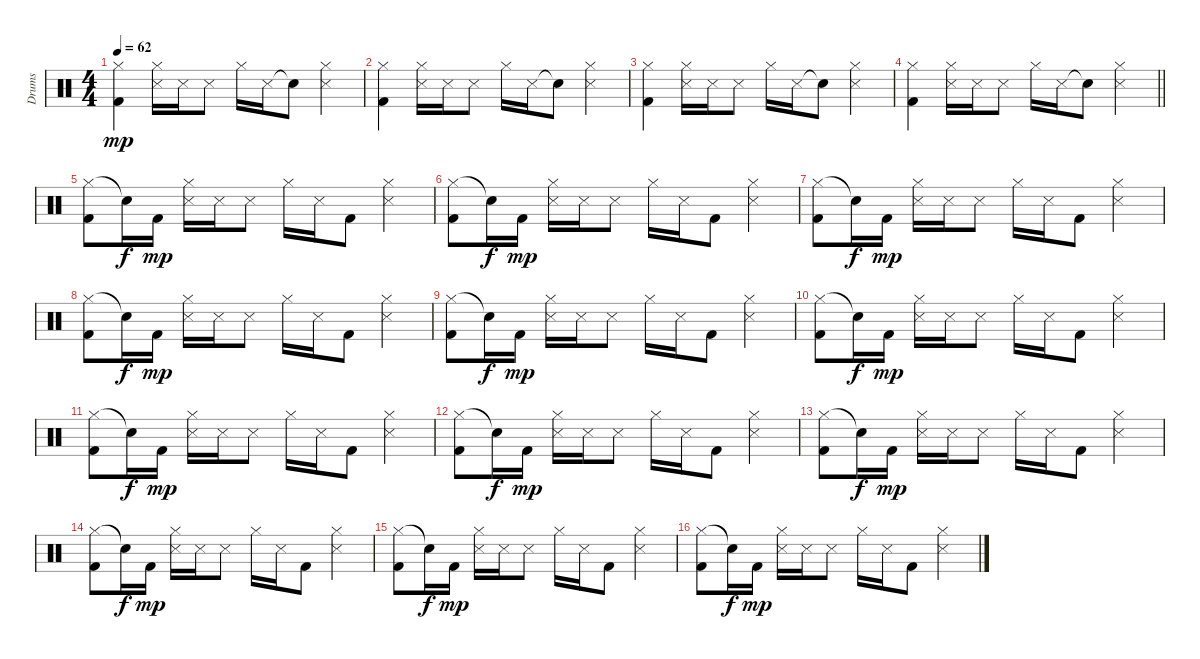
\track ("Drums" "Drums") {instrument percussion}
\staff {score}
\articulation defaults
\ts (4 4)
\tempo 62
\clef neutral
\ks c
("Hi-Hat (closed)" "Kick (hit) 2").4{dy mp} ("Hi-Hat (closed)" "Snare (side stick) 3").16 "Snare (side stick) 3".16 "Snare (side stick) 3".8 "Hi-Hat (closed)".16 "Snare (side stick) 3".16 "Snare (hit)"{t}.8 ("Hi-Hat (closed)" "Snare (side stick) 3").4 |
("Hi-Hat (closed)" "Kick (hit) 2").4 ("Hi-Hat (closed)" "Snare (side stick) 3").16 "Snare (side stick) 3".16 "Snare (side stick) 3".8 "Hi-Hat (closed)".16 "Snare (side stick) 3".16 "Snare (hit)"{t}.8 ("Hi-Hat (closed)" "Snare (side stick) 3").4 |
("Hi-Hat (closed)" "Kick (hit) 2").4 ("Hi-Hat (closed)" "Snare (side stick) 3").16 "Snare (side stick) 3".16 "Snare (side stick) 3".8 "Hi-Hat (closed)".16 "Snare (side stick) 3".16 "Snare (hit)"{t}.8 ("Hi-Hat (closed)" "Snare (side stick) 3").4 |
\barLineRight lightlight
("Hi-Hat (closed)" "Kick (hit) 2").4 ("Hi-Hat (closed)" "Snare (side stick) 3").16 "Snare (side stick) 3".16 "Snare (side stick) 3".8 "Hi-Hat (closed)".16 "Snare (side stick) 3".16 "Snare (hit)"{t}.8 ("Hi-Hat (closed)" "Snare (side stick) 3").4 |
("Hi-Hat (closed)" "Kick (hit) 2").8 "Snare (hit)"{t}.16{dy f} "Kick (hit) 2".16{dy mp} ("Hi-Hat (closed)" "Snare (side stick) 3").16 "Snare (side stick) 3".16 "Snare (side stick) 3".8 "Hi-Hat (closed)".16 "Snare (side stick) 3".16 "Kick (hit) 2".8 ("Hi-Hat (closed)" "Snare (side stick) 3").4 |
("Hi-Hat (closed)" "Kick (hit) 2").8 "Snare (hit)"{t}.16{dy f} "Kick (hit) 2".16{dy mp} ("Hi-Hat (closed)" "Snare (side stick) 3").16 "Snare (side stick) 3".16 "Snare (side stick) 3".8 "Hi-Hat (closed)".16 "Snare (side stick) 3".16 "Kick (hit) 2".8 ("Hi-Hat (closed)" "Snare (side stick) 3").4 |
("Hi-Hat (closed)" "Kick (hit) 2").8 "Snare (hit)"{t}.16{dy f} "Kick (hit) 2".16{dy mp} ("Hi-Hat (closed)" "Snare (side stick) 3").16 "Snare (side stick) 3".16 "Snare (side stick) 3".8 "Hi-Hat (closed)".16 "Snare (side stick) 3".16 "Kick (hit) 2".8 ("Hi-Hat (closed)" "Snare (side stick) 3").4 |
("Hi-Hat (closed)" "Kick (hit) 2").8 "Snare (hit)"{t}.16{dy f} "Kick (hit) 2".16{dy mp} ("Hi-Hat (closed)" "Snare (side stick) 3").16 "Snare (side stick) 3".16 "Snare (side stick) 3".8 "Hi-Hat (closed)".16 "Snare (side stick) 3".16 "Kick (hit) 2".8 ("Hi-Hat (closed)" "Snare (side stick) 3").4 |
("Hi-Hat (closed)" "Kick (hit) 2").8 "Snare (hit)"{t}.16{dy f} "Kick (hit) 2".16{dy mp} ("Hi-Hat (closed)" "Snare (side stick) 3").16 "Snare (side stick) 3".16 "Snare (side stick) 3".8 "Hi-Hat (closed)".16 "Snare (side stick) 3".16 "Kick (hit) 2".8 ("Hi-Hat (closed)" "Snare (side stick) 3").4 |
("Hi-Hat (closed)" "Kick (hit) 2").8 "Snare (hit)"{t}.16{dy f} "Kick (hit) 2".16{dy mp} ("Hi-Hat (closed)" "Snare (side stick) 3").16 "Snare (side stick) 3".16 "Snare (side stick) 3".8 "Hi-Hat (closed)".16 "Snare (side stick) 3".16 "Kick (hit) 2".8 ("Hi-Hat (closed)" "Snare (side stick) 3").4 |
("Hi-Hat (closed)" "Kick (hit) 2").8 "Snare (hit)"{t}.16{dy f} "Kick (hit) 2".16{dy mp} ("Hi-Hat (closed)" "Snare (side stick) 3").16 "Snare (side stick) 3".16 "Snare (side stick) 3".8 "Hi-Hat (closed)".16 "Snare (side stick) 3".16 "Kick (hit) 2".8 ("Hi-Hat (closed)" "Snare (side stick) 3").4 |
("Hi-Hat (closed)" "Kick (hit) 2").8 "Snare (hit)"{t}.16{dy f} "Kick (hit) 2".16{dy mp} ("Hi-Hat (closed)" "Snare (side stick) 3").16 "Snare (side stick) 3".16 "Snare (side stick) 3".8 "Hi-Hat (closed)".16 "Snare (side stick) 3".16 "Kick (hit) 2".8 ("Hi-Hat (closed)" "Snare (side stick) 3").4 |
("Hi-Hat (closed)" "Kick (hit) 2").8 "Snare (hit)"{t}.16{dy f} "Kick (hit) 2".16{dy mp} ("Hi-Hat (closed)" "Snare (side stick) 3").16 "Snare (side stick) 3".16 "Snare (side stick) 3".8 "Hi-Hat (closed)".16 "Snare (side stick) 3".16 "Kick (hit) 2".8 ("Hi-Hat (closed)" "Snare (side stick) 3").4 |
("Hi-Hat (closed)" "Kick (hit) 2").8 "Snare (hit)"{t}.16{dy f} "Kick (hit) 2".16{dy mp} ("Hi-Hat (closed)" "Snare (side stick) 3").16 "Snare (side stick) 3".16 "Snare (side stick) 3".8 "Hi-Hat (closed)".16 "Snare (side stick) 3".16 "Kick (hit) 2".8 ("Hi-Hat (closed)" "Snare (side stick) 3").4 |
("Hi-Hat (closed)" "Kick (hit) 2").8 "Snare (hit)"{t}.16{dy f} "Kick (hit) 2".16{dy mp} ("Hi-Hat (closed)" "Snare (side stick) 3").16 "Snare (side stick) 3".16 "Snare (side stick) 3".8 "Hi-Hat (closed)".16 "Snare (side stick) 3".16 "Kick (hit) 2".8 ("Hi-Hat (closed)" "Snare (side stick) 3").4 |
("Hi-Hat (closed)" "Kick (hit) 2").8 "Snare (hit)"{t}.16{dy f} "Kick (hit) 2".16{dy mp} ("Hi-Hat (closed)" "Snare (side stick) 3").16 "Snare (side stick) 3".16 "Snare (side stick) 3".8 "Hi-Hat (closed)".16 "Snare (side stick) 3".16 "Kick (hit) 2".8 ("Hi-Hat (closed)" "Snare (side stick) 3").4
